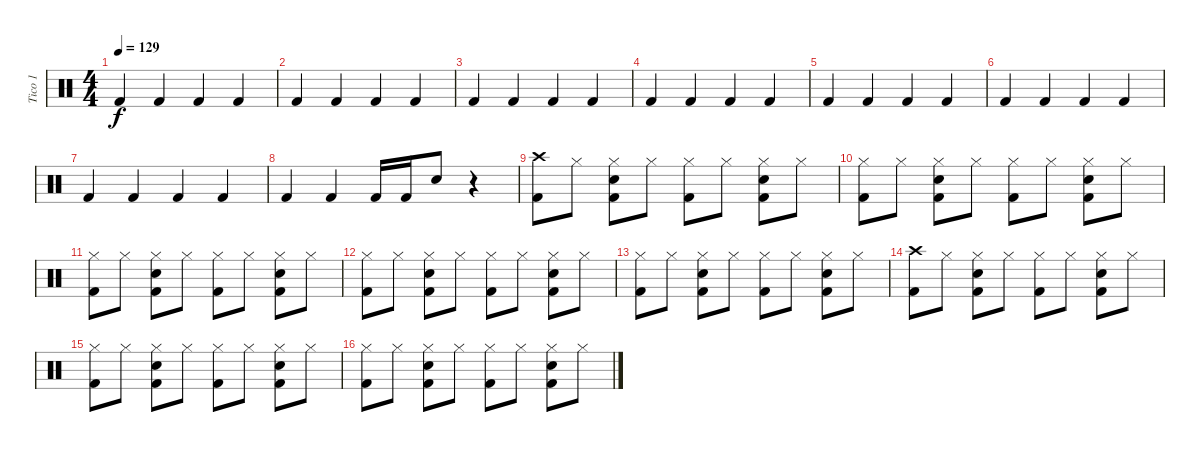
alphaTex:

\track ("Tico 1" "Tico 1") {instrument percussion}
\staff {score}
\articulation defaults
\ts (4 4)
\tempo 129
\clef neutral
\ks c "Kick (hit) 2".4{dy f} "Kick (hit) 2".4 "Kick (hit) 2".4 "Kick (hit) 2".4
|
"Kick (hit) 2".4 "Kick (hit) 2".4 "Kick (hit) 2".4 "Kick (hit) 2".4 |
"Kick (hit) 2".4 "Kick (hit) 2".4 "Kick (hit) 2".4 "Kick (hit) 2".4 |
"Kick (hit) 2".4 "Kick (hit) 2".4 "Kick (hit) 2".4 "Kick (hit) 2".4 |
"Kick (hit) 2".4 "Kick (hit) 2".4 "Kick (hit) 2".4 "Kick (hit) 2".4 |
"Kick (hit) 2".4 "Kick (hit) 2".4 "Kick (hit) 2".4 "Kick (hit) 2".4 |
"Kick (hit) 2".4 "Kick (hit) 2".4 "Kick (hit) 2".4 "Kick (hit) 2".4 |
"Kick (hit) 2".4 "Kick (hit) 2".4 "Kick (hit) 2".16 "Kick (hit) 2".16 "Snare (hit) 2".8 r.4 |
("Crash high (hit)" "Kick (hit) 2").8 "Hi-Hat (closed)".8 ("Hi-Hat (closed)" "Snare (hit) 2" "Kick (hit) 2").8 "Hi-Hat (closed)".8 ("Hi-Hat (closed)" "Kick (hit) 2").8 "Hi-Hat (closed)".8 ("Hi-Hat (closed)" "Snare (hit) 2" "Kick (hit) 2").8 "Hi-Hat (closed)".8 |
("Hi-Hat (closed)" "Kick (hit) 2").8 "Hi-Hat (closed)".8 ("Hi-Hat (closed)" "Snare (hit) 2" "Kick (hit) 2").8 "Hi-Hat (closed)".8 ("Hi-Hat (closed)" "Kick (hit) 2").8 "Hi-Hat (closed)".8 ("Hi-Hat (closed)" "Snare (hit) 2" "Kick (hit) 2").8 "Hi-Hat (closed)".8 |
("Hi-Hat (closed)" "Kick (hit) 2").8 "Hi-Hat (closed)".8 ("Hi-Hat (closed)" "Snare (hit) 2" "Kick (hit) 2").8 "Hi-Hat (closed)".8 ("Hi-Hat (closed)" "Kick (hit) 2").8 "Hi-Hat (closed)".8 ("Hi-Hat (closed)" "Snare (hit) 2" "Kick (hit) 2").8 "Hi-Hat (closed)".8 |
("Hi-Hat (closed)" "Kick (hit) 2").8 "Hi-Hat (closed)".8 ("Hi-Hat (closed)" "Snare (hit) 2" "Kick (hit) 2").8 "Hi-Hat (closed)".8 ("Hi-Hat (closed)" "Kick (hit) 2").8 "Hi-Hat (closed)".8 ("Hi-Hat (closed)" "Snare (hit) 2" "Kick (hit) 2").8 "Hi-Hat (closed)".8 |
("Hi-Hat (closed)" "Kick (hit) 2").8 "Hi-Hat (closed)".8 ("Hi-Hat (closed)" "Snare (hit) 2" "Kick (hit) 2").8 "Hi-Hat (closed)".8 ("Hi-Hat (closed)" "Kick (hit) 2").8 "Hi-Hat (closed)".8 ("Hi-Hat (closed)" "Snare (hit) 2" "Kick (hit) 2").8 "Hi-Hat (closed)".8 |
("Crash high (hit)" "Kick (hit) 2").8 "Hi-Hat (closed)".8 ("Hi-Hat (closed)" "Snare (hit) 2" "Kick (hit) 2").8 "Hi-Hat (closed)".8 ("Hi-Hat (closed)" "Kick (hit) 2").8 "Hi-Hat (closed)".8 ("Hi-Hat (closed)" "Snare (hit) 2" "Kick (hit) 2").8 "Hi-Hat (closed)".8 |
("Hi-Hat (closed)" "Kick (hit) 2").8 "Hi-Hat (closed)".8 ("Hi-Hat (closed)" "Snare (hit) 2" "Kick (hit) 2").8 "Hi-Hat (closed)".8 ("Hi-Hat (closed)" "Kick (hit) 2").8 "Hi-Hat (closed)".8 ("Hi-Hat (closed)" "Snare (hit) 2" "Kick (hit) 2").8 "Hi-Hat (closed)".8 |
("Hi-Hat (closed)" "Kick (hit) 2").8 "Hi-Hat (closed)".8 ("Hi-Hat (closed)" "Snare (hit) 2" "Kick (hit) 2").8 "Hi-Hat (closed)".8 ("Hi-Hat (closed)" "Kick (hit) 2").8 "Hi-Hat (closed)".8 ("Hi-Hat (closed)" "Snare (hit) 2" "Kick (hit) 2").8 "Hi-Hat (closed)".8
